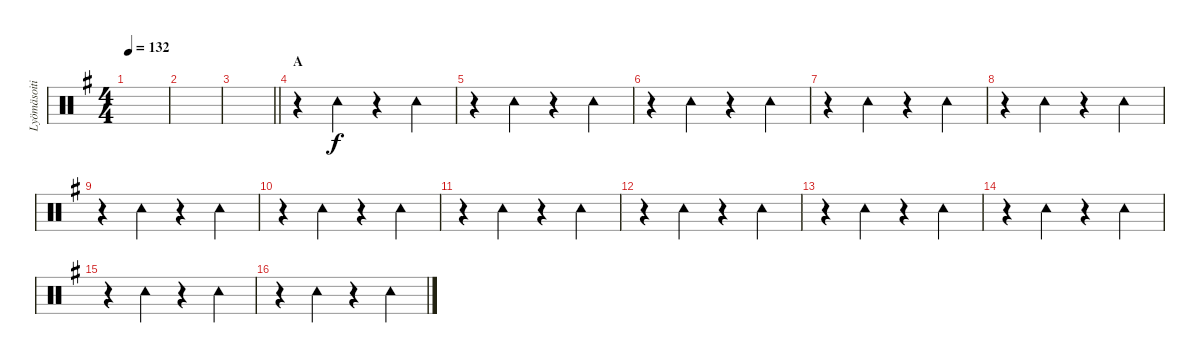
\track ("Lyömäsoitin" "Lyömäsoiti") {instrument percussion}
\staff {score}
\articulation defaults
\ts (4 4)
\tempo 132
\clef neutral
\ks eminor
|
|
\barLineRight lightlight
|
\section ("" "A")
r.4 "Tambourine (hit)".4 r.4 "Tambourine (hit)".4 |
r.4 "Tambourine (hit)".4 r.4 "Tambourine (hit)".4 |
r.4 "Tambourine (hit)".4 r.4 "Tambourine (hit)".4 |
r.4 "Tambourine (hit)".4 r.4 "Tambourine (hit)".4 |
r.4 "Tambourine (hit)".4 r.4 "Tambourine (hit)".4 |
r.4 "Tambourine (hit)".4 r.4 "Tambourine (hit)".4 |
r.4 "Tambourine (hit)".4 r.4 "Tambourine (hit)".4 |
r.4 "Tambourine (hit)".4 r.4 "Tambourine (hit)".4 |
r.4 "Tambourine (hit)".4 r.4 "Tambourine (hit)".4 |
r.4 "Tambourine (hit)".4 r.4 "Tambourine (hit)".4 |
r.4 "Tambourine (hit)".4 r.4 "Tambourine (hit)".4 |
r.4 "Tambourine (hit)".4 r.4 "Tambourine (hit)".4 |
r.4 "Tambourine (hit)".4 r.4 "Tambourine (hit)".4
